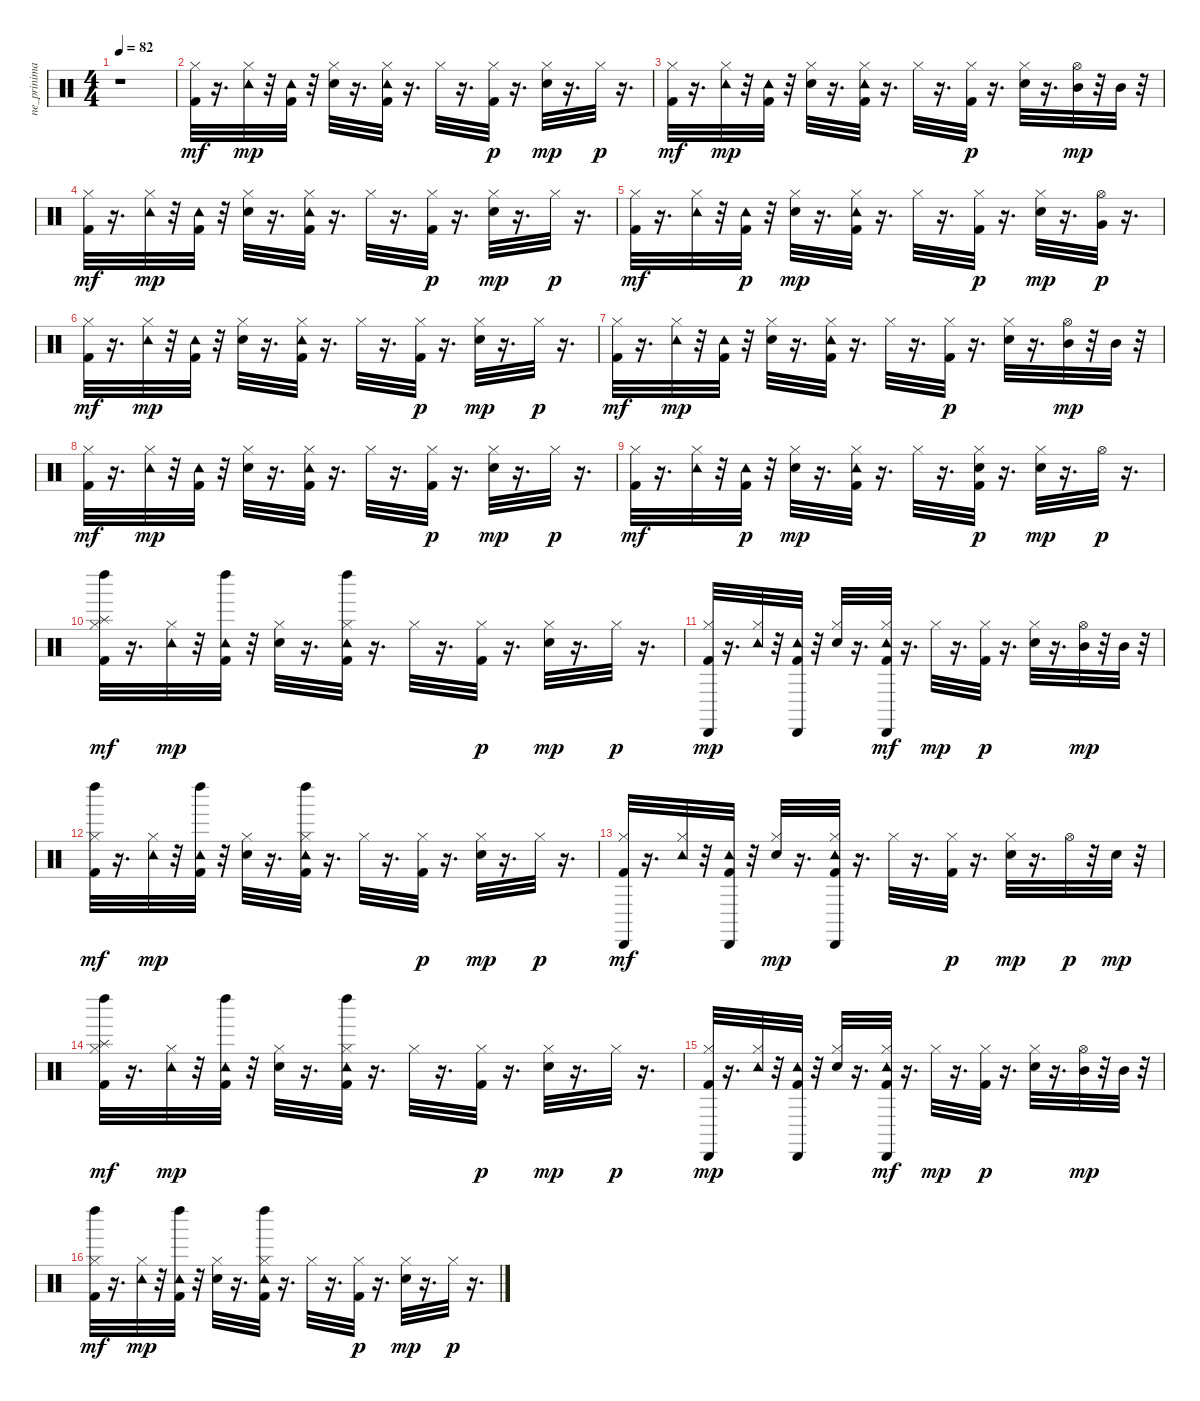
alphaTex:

\track ("ne_prinimai" "ne_prinima") {instrument percussion}
\staff {score}
\articulation defaults
\ts (4 4)
\tempo 82
\clef neutral
\ks c
r.1{dy mf} |
("Kick (hit) 2" "Hi-Hat (closed)").32 r.16{d} ("Hi-Hat (closed)" "Tambourine (hit)").32{dy mp} r.32 ("Kick (hit) 2" "Tambourine (hit)").32 r.32 ("Snare (hit) 2" "Hi-Hat (closed)").32 r.16{d} ("Kick (hit) 2" "Hi-Hat (closed)" "Tambourine (hit)").32 r.16{d} "Hi-Hat (closed)".32 r.16{d} ("Kick (hit) 2" "Hi-Hat (closed)").32{dy p} r.16{d} ("Snare (hit) 2" "Hi-Hat (closed)").32{dy mp} r.16{d} "Hi-Hat (closed)".32{dy p} r.16{d} |
("Kick (hit) 2" "Hi-Hat (closed)").32{dy mf} r.16{d} ("Hi-Hat (closed)" "Tambourine (hit)").32{dy mp} r.32 ("Kick (hit) 2" "Tambourine (hit)").32 r.32 ("Snare (hit) 2" "Hi-Hat (closed)").32 r.16{d} ("Kick (hit) 2" "Hi-Hat (closed)" "Tambourine (hit)").32 r.16{d} "Hi-Hat (closed)".32 r.16{d} ("Kick (hit) 2" "Hi-Hat (closed)").32{dy p} r.16{d} ("Snare (hit) 2" "Hi-Hat (closed)").32 r.16{d} ("Hi-Hat (open)" "Mid Tom (hit)").32{dy mp} r.32 "Mid Tom (hit)".32 r.32 |
("Kick (hit) 2" "Hi-Hat (closed)").32{dy mf} r.16{d} ("Hi-Hat (closed)" "Tambourine (hit)").32{dy mp} r.32 ("Kick (hit) 2" "Tambourine (hit)").32 r.32 ("Snare (hit) 2" "Hi-Hat (closed)").32 r.16{d} ("Kick (hit) 2" "Hi-Hat (closed)" "Tambourine (hit)").32 r.16{d} "Hi-Hat (closed)".32 r.16{d} ("Kick (hit) 2" "Hi-Hat (closed)").32{dy p} r.16{d} ("Snare (hit) 2" "Hi-Hat (closed)").32{dy mp} r.16{d} "Hi-Hat (closed)".32{dy p} r.16{d} |
("Kick (hit) 2" "Hi-Hat (closed)").32{dy mf} r.16{d} ("Hi-Hat (closed)" "Tambourine (hit)").32 r.32 ("Kick (hit) 2" "Tambourine (hit)").32{dy p} r.32 ("Snare (hit) 2" "Hi-Hat (closed)").32{dy mp} r.16{d} ("Kick (hit) 2" "Hi-Hat (closed)" "Tambourine (hit)").32 r.16{d} "Hi-Hat (closed)".32 r.16{d} ("Kick (hit) 2" "Hi-Hat (closed)").32{dy p} r.16{d} ("Snare (hit) 2" "Hi-Hat (closed)").32{dy mp} r.16{d} ("Very Low Tom (hit)" "Hi-Hat (open)").32{dy p} r.16{d} |
("Kick (hit) 2" "Hi-Hat (closed)").32{dy mf} r.16{d} ("Hi-Hat (closed)" "Tambourine (hit)").32{dy mp} r.32 ("Kick (hit) 2" "Tambourine (hit)").32 r.32 ("Snare (hit) 2" "Hi-Hat (closed)").32 r.16{d} ("Kick (hit) 2" "Hi-Hat (closed)" "Tambourine (hit)").32 r.16{d} "Hi-Hat (closed)".32 r.16{d} ("Kick (hit) 2" "Hi-Hat (closed)").32{dy p} r.16{d} ("Snare (hit) 2" "Hi-Hat (closed)").32{dy mp} r.16{d} "Hi-Hat (closed)".32{dy p} r.16{d} |
("Kick (hit) 2" "Hi-Hat (closed)").32{dy mf} r.16{d} ("Hi-Hat (closed)" "Tambourine (hit)").32{dy mp} r.32 ("Kick (hit) 2" "Tambourine (hit)").32 r.32 ("Snare (hit) 2" "Hi-Hat (closed)").32 r.16{d} ("Kick (hit) 2" "Hi-Hat (closed)" "Tambourine (hit)").32 r.16{d} "Hi-Hat (closed)".32 r.16{d} ("Kick (hit) 2" "Hi-Hat (closed)").32{dy p} r.16{d} ("Snare (hit) 2" "Hi-Hat (closed)").32 r.16{d} ("Hi-Hat (open)" "Mid Tom (hit)").32{dy mp} r.32 "Mid Tom (hit)".32 r.32 |
("Kick (hit) 2" "Hi-Hat (closed)").32{dy mf} r.16{d} ("Hi-Hat (closed)" "Tambourine (hit)").32{dy mp} r.32 ("Kick (hit) 2" "Tambourine (hit)").32 r.32 ("Snare (hit) 2" "Hi-Hat (closed)").32 r.16{d} ("Kick (hit) 2" "Hi-Hat (closed)" "Tambourine (hit)").32 r.16{d} "Hi-Hat (closed)".32 r.16{d} ("Kick (hit) 2" "Hi-Hat (closed)").32{dy p} r.16{d} ("Snare (hit) 2" "Hi-Hat (closed)").32{dy mp} r.16{d} "Hi-Hat (closed)".32{dy p} r.16{d} |
("Kick (hit) 2" "Hi-Hat (closed)").32{dy mf} r.16{d} ("Hi-Hat (closed)" "Tambourine (hit)").32 r.32 ("Kick (hit) 2" "Tambourine (hit)").32{dy p} r.32 ("Snare (hit) 2" "Hi-Hat (closed)").32{dy mp} r.16{d} ("Kick (hit) 2" "Hi-Hat (closed)" "Tambourine (hit)").32 r.16{d} "Hi-Hat (closed)".32 r.16{d} ("Kick (hit) 2" "Snare (hit) 2" "Hi-Hat (closed)").32{dy p} r.16{d} ("Electric Snare (hit)" "Hi-Hat (closed)").32{dy mp} r.16{d} "Hi-Hat (open)".32{dy p} r.16{d} |
("Kick (hit) 2" "Hi-Hat (closed)" "Splash (hit)" "Left Maraca (hit)").32{dy mf} r.16{d} ("Hi-Hat (closed)" "Tambourine (hit)").32{dy mp} r.32 ("Kick (hit) 2" "Tambourine (hit)" "Left Maraca (hit)").32 r.32 ("Electric Snare (hit)" "Hi-Hat (closed)").32 r.16{d} ("Kick (hit) 2" "Hi-Hat (closed)" "Tambourine (hit)" "Left Maraca (hit)").32 r.16{d} "Hi-Hat (closed)".32 r.16{d} ("Kick (hit) 2" "Hi-Hat (closed)").32{dy p} r.16{d} ("Electric Snare (hit)" "Hi-Hat (closed)").32{dy mp} r.16{d} "Hi-Hat (closed)".32{dy p} r.16{d} |
("Kick (hit) 2" "Hi-Hat (closed)" "Cabasa (hit)").32{dy mp} r.16{d} ("Hi-Hat (closed)" "Tambourine (hit)").32 r.32 ("Kick (hit) 2" "Tambourine (hit)" "Cabasa (hit)").32 r.32 ("Electric Snare (hit)" "Hi-Hat (closed)").32 r.16{d} ("Kick (hit) 2" "Hi-Hat (closed)" "Tambourine (hit)" "Cabasa (hit)").32{dy mf} r.16{d} "Hi-Hat (closed)".32{dy mp} r.16{d} ("Kick (hit) 2" "Hi-Hat (closed)").32{dy p} r.16{d} ("Electric Snare (hit)" "Hi-Hat (closed)").32 r.16{d} ("Hi-Hat (open)" "Mid Tom (hit)").32{dy mp} r.32 "Mid Tom (hit)".32 r.32 |
("Kick (hit) 2" "Hi-Hat (closed)" "Left Maraca (hit)").32{dy mf} r.16{d} ("Hi-Hat (closed)" "Tambourine (hit)").32{dy mp} r.32 ("Kick (hit) 2" "Tambourine (hit)" "Left Maraca (hit)").32 r.32 ("Electric Snare (hit)" "Hi-Hat (closed)").32 r.16{d} ("Kick (hit) 2" "Hi-Hat (closed)" "Tambourine (hit)" "Left Maraca (hit)").32 r.16{d} "Hi-Hat (closed)".32 r.16{d} ("Kick (hit) 2" "Hi-Hat (closed)").32{dy p} r.16{d} ("Electric Snare (hit)" "Hi-Hat (closed)").32{dy mp} r.16{d} "Hi-Hat (closed)".32{dy p} r.16{d} |
("Kick (hit) 2" "Hi-Hat (closed)" "Cabasa (hit)").32{dy mf} r.16{d} ("Hi-Hat (closed)" "Tambourine (hit)").32 r.32 ("Kick (hit) 2" "Tambourine (hit)" "Cabasa (hit)").32 r.32 ("Electric Snare (hit)" "Hi-Hat (closed)").32{dy mp} r.16{d} ("Kick (hit) 2" "Hi-Hat (closed)" "Tambourine (hit)" "Cabasa (hit)").32 r.16{d} "Hi-Hat (closed)".32 r.16{d} ("Kick (hit) 2" "Hi-Hat (closed)").32{dy p} r.16{d} ("Electric Snare (hit)" "Hi-Hat (closed)").32{dy mp} r.16{d} "Hi-Hat (open)".32{dy p} r.32 "Electric Snare (hit)".32{dy mp} r.32 |
("Kick (hit) 2" "Hi-Hat (closed)" "Splash (hit)" "Left Maraca (hit)").32{dy mf} r.16{d} ("Hi-Hat (closed)" "Tambourine (hit)").32{dy mp} r.32 ("Kick (hit) 2" "Tambourine (hit)" "Left Maraca (hit)").32 r.32 ("Electric Snare (hit)" "Hi-Hat (closed)").32 r.16{d} ("Kick (hit) 2" "Hi-Hat (closed)" "Tambourine (hit)" "Left Maraca (hit)").32 r.16{d} "Hi-Hat (closed)".32 r.16{d} ("Kick (hit) 2" "Hi-Hat (closed)").32{dy p} r.16{d} ("Electric Snare (hit)" "Hi-Hat (closed)").32{dy mp} r.16{d} "Hi-Hat (closed)".32{dy p} r.16{d} |
("Kick (hit) 2" "Hi-Hat (closed)" "Cabasa (hit)").32{dy mp} r.16{d} ("Hi-Hat (closed)" "Tambourine (hit)").32 r.32 ("Kick (hit) 2" "Tambourine (hit)" "Cabasa (hit)").32 r.32 ("Electric Snare (hit)" "Hi-Hat (closed)").32 r.16{d} ("Kick (hit) 2" "Hi-Hat (closed)" "Tambourine (hit)" "Cabasa (hit)").32{dy mf} r.16{d} "Hi-Hat (closed)".32{dy mp} r.16{d} ("Kick (hit) 2" "Hi-Hat (closed)").32{dy p} r.16{d} ("Electric Snare (hit)" "Hi-Hat (closed)").32 r.16{d} ("Hi-Hat (open)" "Mid Tom (hit)").32{dy mp} r.32 "Mid Tom (hit)".32 r.32 |
("Kick (hit) 2" "Hi-Hat (closed)" "Left Maraca (hit)").32{dy mf} r.16{d} ("Hi-Hat (closed)" "Tambourine (hit)").32{dy mp} r.32 ("Kick (hit) 2" "Tambourine (hit)" "Left Maraca (hit)").32 r.32 ("Electric Snare (hit)" "Hi-Hat (closed)").32 r.16{d} ("Kick (hit) 2" "Hi-Hat (closed)" "Tambourine (hit)" "Left Maraca (hit)").32 r.16{d} "Hi-Hat (closed)".32 r.16{d} ("Kick (hit) 2" "Hi-Hat (closed)").32{dy p} r.16{d} ("Electric Snare (hit)" "Hi-Hat (closed)").32{dy mp} r.16{d} "Hi-Hat (closed)".32{dy p} r.16{d}
